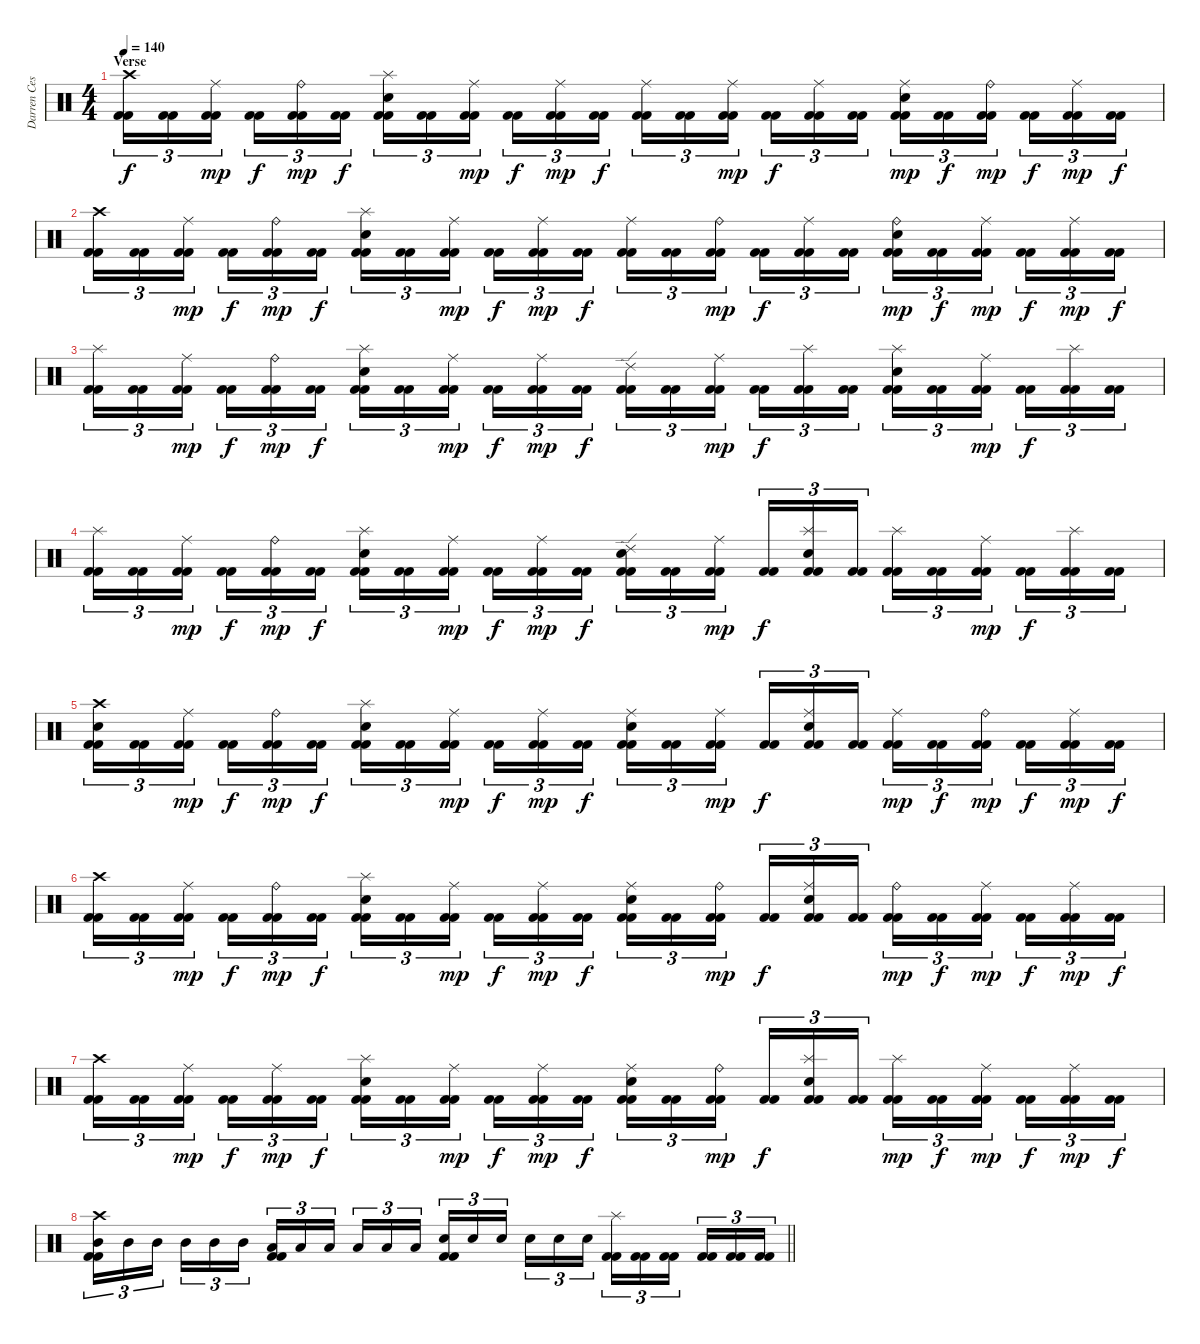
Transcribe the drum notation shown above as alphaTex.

\track ("Darren Cesca" "Darren Ces") {instrument percussion}
\staff {score}
\articulation defaults
\ts (4 4)
\section ("" "Verse")
\tempo 140
\clef neutral
\ks c
("Crash high (hit)" "Kick (hit) 2" "Kick (hit) 2").16{tu (3 2) dy f} ("Kick (hit) 2" "Kick (hit) 2").16{tu (3 2)} ("Ride (middle)" "Kick (hit) 2" "Kick (hit) 2").16{tu (3 2) dy mp beam splitsecondary} ("Kick (hit) 2" "Kick (hit) 2").16{tu (3 2) dy f} ("Ride (bell)" "Kick (hit) 2" "Kick (hit) 2").16{tu (3 2) dy mp} ("Kick (hit) 2" "Kick (hit) 2").16{tu (3 2) dy f} ("Splash (hit)" "Electric Snare (hit)" "Kick (hit) 2" "Kick (hit) 2").16{tu (3 2)} ("Kick (hit) 2" "Kick (hit) 2").16{tu (3 2)} ("Ride (middle)" "Kick (hit) 2" "Kick (hit) 2").16{tu (3 2) dy mp beam splitsecondary} ("Kick (hit) 2" "Kick (hit) 2").16{tu (3 2) dy f} ("Ride (middle)" "Kick (hit) 2" "Kick (hit) 2").16{tu (3 2) dy mp} ("Kick (hit) 2" "Kick (hit) 2").16{tu (3 2) dy f} ("Ride (middle)" "Kick (hit) 2" "Kick (hit) 2").16{tu (3 2)} ("Kick (hit) 2" "Kick (hit) 2").16{tu (3 2)} ("Ride (middle)" "Kick (hit) 2" "Kick (hit) 2").16{tu (3 2) dy mp beam splitsecondary} ("Kick (hit) 2" "Kick (hit) 2").16{tu (3 2) dy f} ("Ride (middle)" "Kick (hit) 2" "Kick (hit) 2").16{tu (3 2)} ("Kick (hit) 2" "Kick (hit) 2").16{tu (3 2)} ("Ride (middle)" "Electric Snare (hit)" "Kick (hit) 2" "Kick (hit) 2").16{tu (3 2) dy mp} ("Kick (hit) 2" "Kick (hit) 2").16{tu (3 2) dy f} ("Ride (bell)" "Kick (hit) 2" "Kick (hit) 2").16{tu (3 2) dy mp beam splitsecondary} ("Kick (hit) 2" "Kick (hit) 2").16{tu (3 2) dy f} ("Ride (middle)" "Kick (hit) 2" "Kick (hit) 2").16{tu (3 2) dy mp} ("Kick (hit) 2" "Kick (hit) 2").16{tu (3 2) dy f} |
("Crash high (hit)" "Kick (hit) 2" "Kick (hit) 2").16{tu (3 2)} ("Kick (hit) 2" "Kick (hit) 2").16{tu (3 2)} ("Ride (middle)" "Kick (hit) 2" "Kick (hit) 2").16{tu (3 2) dy mp beam splitsecondary} ("Kick (hit) 2" "Kick (hit) 2").16{tu (3 2) dy f} ("Ride (bell)" "Kick (hit) 2" "Kick (hit) 2").16{tu (3 2) dy mp} ("Kick (hit) 2" "Kick (hit) 2").16{tu (3 2) dy f} ("Splash (hit)" "Electric Snare (hit)" "Kick (hit) 2" "Kick (hit) 2").16{tu (3 2)} ("Kick (hit) 2" "Kick (hit) 2").16{tu (3 2)} ("Ride (middle)" "Kick (hit) 2" "Kick (hit) 2").16{tu (3 2) dy mp beam splitsecondary} ("Kick (hit) 2" "Kick (hit) 2").16{tu (3 2) dy f} ("Ride (middle)" "Kick (hit) 2" "Kick (hit) 2").16{tu (3 2) dy mp} ("Kick (hit) 2" "Kick (hit) 2").16{tu (3 2) dy f} ("Ride (middle)" "Kick (hit) 2" "Kick (hit) 2").16{tu (3 2)} ("Kick (hit) 2" "Kick (hit) 2").16{tu (3 2)} ("Ride (bell)" "Kick (hit) 2" "Kick (hit) 2").16{tu (3 2) dy mp beam splitsecondary} ("Kick (hit) 2" "Kick (hit) 2").16{tu (3 2) dy f} ("Ride (middle)" "Kick (hit) 2" "Kick (hit) 2").16{tu (3 2)} ("Kick (hit) 2" "Kick (hit) 2").16{tu (3 2)} ("Ride (bell)" "Electric Snare (hit)" "Kick (hit) 2" "Kick (hit) 2").16{tu (3 2) dy mp} ("Kick (hit) 2" "Kick (hit) 2").16{tu (3 2) dy f} ("Ride (middle)" "Kick (hit) 2" "Kick (hit) 2").16{tu (3 2) dy mp beam splitsecondary} ("Kick (hit) 2" "Kick (hit) 2").16{tu (3 2) dy f} ("Ride (middle)" "Kick (hit) 2" "Kick (hit) 2").16{tu (3 2) dy mp} ("Kick (hit) 2" "Kick (hit) 2").16{tu (3 2) dy f} |
("Splash (hit)" "Kick (hit) 2" "Kick (hit) 2").16{tu (3 2)} ("Kick (hit) 2" "Kick (hit) 2").16{tu (3 2)} ("Ride (middle)" "Kick (hit) 2" "Kick (hit) 2").16{tu (3 2) dy mp beam splitsecondary} ("Kick (hit) 2" "Kick (hit) 2").16{tu (3 2) dy f} ("Ride (bell)" "Kick (hit) 2" "Kick (hit) 2").16{tu (3 2) dy mp} ("Kick (hit) 2" "Kick (hit) 2").16{tu (3 2) dy f} ("Splash (hit)" "Electric Snare (hit)" "Kick (hit) 2" "Kick (hit) 2").16{tu (3 2)} ("Kick (hit) 2" "Kick (hit) 2").16{tu (3 2)} ("Ride (middle)" "Kick (hit) 2" "Kick (hit) 2").16{tu (3 2) dy mp beam splitsecondary} ("Kick (hit) 2" "Kick (hit) 2").16{tu (3 2) dy f} ("Ride (middle)" "Kick (hit) 2" "Kick (hit) 2").16{tu (3 2) dy mp} ("Kick (hit) 2" "Kick (hit) 2").16{tu (3 2) dy f} ("Ride (edge) 2" "Kick (hit) 2" "Kick (hit) 2").16{tu (3 2)} ("Kick (hit) 2" "Kick (hit) 2").16{tu (3 2)} ("Ride (middle)" "Kick (hit) 2" "Kick (hit) 2").16{tu (3 2) dy mp beam splitsecondary} ("Kick (hit) 2" "Kick (hit) 2").16{tu (3 2) dy f} ("Splash (hit)" "Kick (hit) 2" "Kick (hit) 2").16{tu (3 2)} ("Kick (hit) 2" "Kick (hit) 2").16{tu (3 2)} ("Splash (hit)" "Electric Snare (hit)" "Kick (hit) 2" "Kick (hit) 2").16{tu (3 2)} ("Kick (hit) 2" "Kick (hit) 2").16{tu (3 2)} ("Ride (middle)" "Kick (hit) 2" "Kick (hit) 2").16{tu (3 2) dy mp beam splitsecondary} ("Kick (hit) 2" "Kick (hit) 2").16{tu (3 2) dy f} ("Splash (hit)" "Kick (hit) 2" "Kick (hit) 2").16{tu (3 2)} ("Kick (hit) 2" "Kick (hit) 2").16{tu (3 2)} |
("Splash (hit)" "Kick (hit) 2" "Kick (hit) 2").16{tu (3 2)} ("Kick (hit) 2" "Kick (hit) 2").16{tu (3 2)} ("Ride (middle)" "Kick (hit) 2" "Kick (hit) 2").16{tu (3 2) dy mp beam splitsecondary} ("Kick (hit) 2" "Kick (hit) 2").16{tu (3 2) dy f} ("Ride (bell)" "Kick (hit) 2" "Kick (hit) 2").16{tu (3 2) dy mp} ("Kick (hit) 2" "Kick (hit) 2").16{tu (3 2) dy f} ("Splash (hit)" "Electric Snare (hit)" "Kick (hit) 2" "Kick (hit) 2").16{tu (3 2)} ("Kick (hit) 2" "Kick (hit) 2").16{tu (3 2)} ("Ride (middle)" "Kick (hit) 2" "Kick (hit) 2").16{tu (3 2) dy mp beam splitsecondary} ("Kick (hit) 2" "Kick (hit) 2").16{tu (3 2) dy f} ("Ride (middle)" "Kick (hit) 2" "Kick (hit) 2").16{tu (3 2) dy mp} ("Kick (hit) 2" "Kick (hit) 2").16{tu (3 2) dy f} ("Ride (edge) 2" "Electric Snare (hit)" "Kick (hit) 2" "Kick (hit) 2").16{tu (3 2)} ("Kick (hit) 2" "Kick (hit) 2").16{tu (3 2)} ("Ride (middle)" "Kick (hit) 2" "Kick (hit) 2").16{tu (3 2) dy mp beam splitsecondary} ("Kick (hit) 2" "Kick (hit) 2").16{tu (3 2) dy f} ("Splash (hit)" "Electric Snare (hit)" "Kick (hit) 2" "Kick (hit) 2").16{tu (3 2)} ("Kick (hit) 2" "Kick (hit) 2").16{tu (3 2)} ("Splash (hit)" "Kick (hit) 2" "Kick (hit) 2").16{tu (3 2)} ("Kick (hit) 2" "Kick (hit) 2").16{tu (3 2)} ("Ride (middle)" "Kick (hit) 2" "Kick (hit) 2").16{tu (3 2) dy mp beam splitsecondary} ("Kick (hit) 2" "Kick (hit) 2").16{tu (3 2) dy f} ("Splash (hit)" "Kick (hit) 2" "Kick (hit) 2").16{tu (3 2)} ("Kick (hit) 2" "Kick (hit) 2").16{tu (3 2)} |
("Crash high (hit)" "Electric Snare (hit)" "Kick (hit) 2" "Kick (hit) 2").16{tu (3 2)} ("Kick (hit) 2" "Kick (hit) 2").16{tu (3 2)} ("Ride (middle)" "Kick (hit) 2" "Kick (hit) 2").16{tu (3 2) dy mp beam splitsecondary} ("Kick (hit) 2" "Kick (hit) 2").16{tu (3 2) dy f} ("Ride (bell)" "Kick (hit) 2" "Kick (hit) 2").16{tu (3 2) dy mp} ("Kick (hit) 2" "Kick (hit) 2").16{tu (3 2) dy f} ("Splash (hit)" "Electric Snare (hit)" "Kick (hit) 2" "Kick (hit) 2").16{tu (3 2)} ("Kick (hit) 2" "Kick (hit) 2").16{tu (3 2)} ("Ride (middle)" "Kick (hit) 2" "Kick (hit) 2").16{tu (3 2) dy mp beam splitsecondary} ("Kick (hit) 2" "Kick (hit) 2").16{tu (3 2) dy f} ("Ride (middle)" "Kick (hit) 2" "Kick (hit) 2").16{tu (3 2) dy mp} ("Kick (hit) 2" "Kick (hit) 2").16{tu (3 2) dy f} ("Ride (middle)" "Electric Snare (hit)" "Kick (hit) 2" "Kick (hit) 2").16{tu (3 2)} ("Kick (hit) 2" "Kick (hit) 2").16{tu (3 2)} ("Ride (middle)" "Kick (hit) 2" "Kick (hit) 2").16{tu (3 2) dy mp beam splitsecondary} ("Kick (hit) 2" "Kick (hit) 2").16{tu (3 2) dy f} ("Ride (middle)" "Electric Snare (hit)" "Kick (hit) 2" "Kick (hit) 2").16{tu (3 2)} ("Kick (hit) 2" "Kick (hit) 2").16{tu (3 2)} ("Ride (middle)" "Kick (hit) 2" "Kick (hit) 2").16{tu (3 2) dy mp} ("Kick (hit) 2" "Kick (hit) 2").16{tu (3 2) dy f} ("Ride (bell)" "Kick (hit) 2" "Kick (hit) 2").16{tu (3 2) dy mp beam splitsecondary} ("Kick (hit) 2" "Kick (hit) 2").16{tu (3 2) dy f} ("Ride (middle)" "Kick (hit) 2" "Kick (hit) 2").16{tu (3 2) dy mp} ("Kick (hit) 2" "Kick (hit) 2").16{tu (3 2) dy f} |
("Crash high (hit)" "Kick (hit) 2" "Kick (hit) 2").16{tu (3 2)} ("Kick (hit) 2" "Kick (hit) 2").16{tu (3 2)} ("Ride (middle)" "Kick (hit) 2" "Kick (hit) 2").16{tu (3 2) dy mp beam splitsecondary} ("Kick (hit) 2" "Kick (hit) 2").16{tu (3 2) dy f} ("Ride (bell)" "Kick (hit) 2" "Kick (hit) 2").16{tu (3 2) dy mp} ("Kick (hit) 2" "Kick (hit) 2").16{tu (3 2) dy f} ("Splash (hit)" "Electric Snare (hit)" "Kick (hit) 2" "Kick (hit) 2").16{tu (3 2)} ("Kick (hit) 2" "Kick (hit) 2").16{tu (3 2)} ("Ride (middle)" "Kick (hit) 2" "Kick (hit) 2").16{tu (3 2) dy mp beam splitsecondary} ("Kick (hit) 2" "Kick (hit) 2").16{tu (3 2) dy f} ("Ride (middle)" "Kick (hit) 2" "Kick (hit) 2").16{tu (3 2) dy mp} ("Kick (hit) 2" "Kick (hit) 2").16{tu (3 2) dy f} ("Ride (middle)" "Electric Snare (hit)" "Kick (hit) 2" "Kick (hit) 2").16{tu (3 2)} ("Kick (hit) 2" "Kick (hit) 2").16{tu (3 2)} ("Ride (bell)" "Kick (hit) 2" "Kick (hit) 2").16{tu (3 2) dy mp beam splitsecondary} ("Kick (hit) 2" "Kick (hit) 2").16{tu (3 2) dy f} ("Ride (middle)" "Electric Snare (hit)" "Kick (hit) 2" "Kick (hit) 2").16{tu (3 2)} ("Kick (hit) 2" "Kick (hit) 2").16{tu (3 2)} ("Ride (bell)" "Kick (hit) 2" "Kick (hit) 2").16{tu (3 2) dy mp} ("Kick (hit) 2" "Kick (hit) 2").16{tu (3 2) dy f} ("Ride (middle)" "Kick (hit) 2" "Kick (hit) 2").16{tu (3 2) dy mp beam splitsecondary} ("Kick (hit) 2" "Kick (hit) 2").16{tu (3 2) dy f} ("Ride (middle)" "Kick (hit) 2" "Kick (hit) 2").16{tu (3 2) dy mp} ("Kick (hit) 2" "Kick (hit) 2").16{tu (3 2) dy f} |
("Crash high (hit)" "Kick (hit) 2" "Kick (hit) 2").16{tu (3 2)} ("Kick (hit) 2" "Kick (hit) 2").16{tu (3 2)} ("Ride (middle)" "Kick (hit) 2" "Kick (hit) 2").16{tu (3 2) dy mp beam splitsecondary} ("Kick (hit) 2" "Kick (hit) 2").16{tu (3 2) dy f} ("Ride (middle)" "Kick (hit) 2" "Kick (hit) 2").16{tu (3 2) dy mp} ("Kick (hit) 2" "Kick (hit) 2").16{tu (3 2) dy f} ("Splash (hit)" "Electric Snare (hit)" "Kick (hit) 2" "Kick (hit) 2").16{tu (3 2)} ("Kick (hit) 2" "Kick (hit) 2").16{tu (3 2)} ("Ride (middle)" "Kick (hit) 2" "Kick (hit) 2").16{tu (3 2) dy mp beam splitsecondary} ("Kick (hit) 2" "Kick (hit) 2").16{tu (3 2) dy f} ("Ride (middle)" "Kick (hit) 2" "Kick (hit) 2").16{tu (3 2) dy mp} ("Kick (hit) 2" "Kick (hit) 2").16{tu (3 2) dy f} ("Ride (middle)" "Electric Snare (hit)" "Kick (hit) 2" "Kick (hit) 2").16{tu (3 2)} ("Kick (hit) 2" "Kick (hit) 2").16{tu (3 2)} ("Ride (bell)" "Kick (hit) 2" "Kick (hit) 2").16{tu (3 2) dy mp beam splitsecondary} ("Kick (hit) 2" "Kick (hit) 2").16{tu (3 2) dy f} ("Splash (hit)" "Electric Snare (hit)" "Kick (hit) 2" "Kick (hit) 2").16{tu (3 2)} ("Kick (hit) 2" "Kick (hit) 2").16{tu (3 2)} ("Splash (hit)" "Kick (hit) 2" "Kick (hit) 2").16{tu (3 2) dy mp} ("Kick (hit) 2" "Kick (hit) 2").16{tu (3 2) dy f} ("Ride (middle)" "Kick (hit) 2" "Kick (hit) 2").16{tu (3 2) dy mp beam splitsecondary} ("Kick (hit) 2" "Kick (hit) 2").16{tu (3 2) dy f} ("Ride (middle)" "Kick (hit) 2" "Kick (hit) 2").16{tu (3 2) dy mp} ("Kick (hit) 2" "Kick (hit) 2").16{tu (3 2) dy f} |
\barLineRight lightlight
("Crash high (hit)" "Mid Tom (hit)" "Kick (hit) 2" "Kick (hit) 2").16{tu (3 2)} "Mid Tom (hit)".16{tu (3 2)} "Mid Tom (hit)".16{tu (3 2) beam splitsecondary} "Mid Tom (hit)".16{tu (3 2)} "Mid Tom (hit)".16{tu (3 2)} "Mid Tom (hit)".16{tu (3 2)} ("Low Tom (hit)" "Kick (hit) 2" "Kick (hit) 2").16{tu (3 2)} "Low Tom (hit)".16{tu (3 2)} "Low Tom (hit)".16{tu (3 2) beam splitsecondary} "Low Tom (hit)".16{tu (3 2)} "Low Tom (hit)".16{tu (3 2)} "Low Tom (hit)".16{tu (3 2)} ("Electric Snare (hit)" "Kick (hit) 2" "Kick (hit) 2").16{tu (3 2)} "Electric Snare (hit)".16{tu (3 2)} "Electric Snare (hit)".16{tu (3 2) beam splitsecondary} "Electric Snare (hit)".16{tu (3 2)} "Electric Snare (hit)".16{tu (3 2)} "Electric Snare (hit)".16{tu (3 2)} ("Splash (hit)" "Kick (hit) 2" "Kick (hit) 2").16{tu (3 2)} ("Kick (hit) 2" "Kick (hit) 2").16{tu (3 2)} ("Kick (hit) 2" "Kick (hit) 2").16{tu (3 2) beam splitsecondary} ("Kick (hit) 2" "Kick (hit) 2").16{tu (3 2)} ("Kick (hit) 2" "Kick (hit) 2").16{tu (3 2)} ("Kick (hit) 2" "Kick (hit) 2").16{tu (3 2)}
